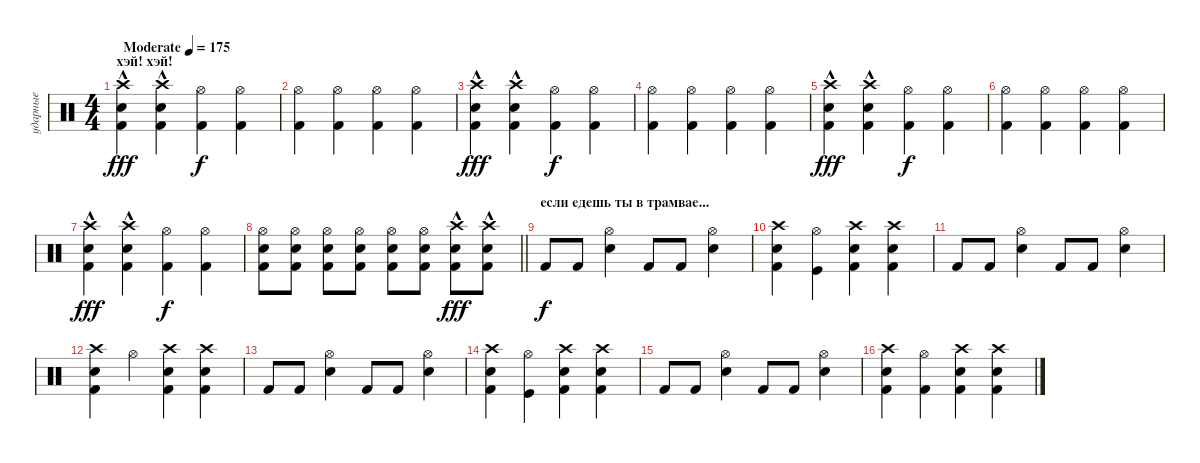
\track ("ударные" "ударные") {instrument percussion}
\staff {score}
\articulation defaults
\ts (4 4)
\section ("" "хэй! хэй!")
\tempo (175 "Moderate")
\clef neutral
\ks c
("Crash high (hit)" "Electric Snare (hit)"{hac} "Kick (hit) 2").4{dy fff} ("Crash high (hit)" "Electric Snare (hit)"{hac} "Kick (hit) 2").4 ("Kick (hit) 2" "Hi-Hat (open)").4{dy f} ("Kick (hit) 2" "Hi-Hat (open)").4 |
("Hi-Hat (open)" "Kick (hit) 2").4 ("Hi-Hat (open)" "Kick (hit) 2").4 ("Hi-Hat (open)" "Kick (hit) 2").4 ("Hi-Hat (open)" "Kick (hit) 2").4 |
("Crash high (hit)"{hac} "Electric Snare (hit)"{hac} "Kick (hit) 2").4{dy fff} ("Crash high (hit)"{hac} "Electric Snare (hit)"{hac} "Kick (hit) 2").4 ("Hi-Hat (open)" "Kick (hit) 2").4{dy f} ("Hi-Hat (open)" "Kick (hit) 2").4 |
("Hi-Hat (open)" "Kick (hit) 2").4 ("Hi-Hat (open)" "Kick (hit) 2").4 ("Hi-Hat (open)" "Kick (hit) 2").4 ("Hi-Hat (open)" "Kick (hit) 2").4 |
("Crash high (hit)"{hac} "Electric Snare (hit)"{hac} "Kick (hit) 2").4{dy fff} ("Crash high (hit)"{hac} "Electric Snare (hit)"{hac} "Kick (hit) 2").4 ("Hi-Hat (open)" "Kick (hit) 2").4{dy f} ("Hi-Hat (open)" "Kick (hit) 2").4 |
("Hi-Hat (open)" "Kick (hit) 2").4 ("Hi-Hat (open)" "Kick (hit) 2").4 ("Hi-Hat (open)" "Kick (hit) 2").4 ("Hi-Hat (open)" "Kick (hit) 2").4 |
("Crash high (hit)"{hac} "Electric Snare (hit)"{hac} "Kick (hit) 2").4{dy fff} ("Crash high (hit)"{hac} "Electric Snare (hit)"{hac} "Kick (hit) 2").4 ("Hi-Hat (open)" "Kick (hit) 2").4{dy f} ("Hi-Hat (open)" "Kick (hit) 2").4 |
\barLineRight lightlight
("Hi-Hat (open)" "Electric Snare (hit)" "Kick (hit) 2").8 ("Hi-Hat (open)" "Electric Snare (hit)" "Kick (hit) 2").8 ("Hi-Hat (open)" "Electric Snare (hit)" "Kick (hit) 2").8 ("Hi-Hat (open)" "Electric Snare (hit)" "Kick (hit) 2").8 ("Hi-Hat (open)" "Electric Snare (hit)" "Kick (hit) 2").8 ("Hi-Hat (open)" "Electric Snare (hit)" "Kick (hit) 2").8 ("Kick (hit) 2"{hac} "Electric Snare (hit)"{hac} "Crash high (hit)").8{dy fff} ("Kick (hit) 2"{hac} "Electric Snare (hit)"{hac} "Crash high (hit)").8 |
\section ("" "если едешь ты в трамвае...")
"Kick (hit) 2".8{dy f} "Kick (hit) 2".8 ("Electric Snare (hit)" "Hi-Hat (open)").4 "Kick (hit) 2".8 "Kick (hit) 2".8 ("Electric Snare (hit)" "Hi-Hat (open)").4 |
("Electric Snare (hit)" "Crash high (hit)" "Kick (hit) 2").4 ("Hi-Hat (open)" "Kick (hit)").4 ("Electric Snare (hit)" "Crash high (hit)" "Kick (hit) 2").4 ("Electric Snare (hit)" "Crash high (hit)" "Kick (hit) 2").4 |
"Kick (hit) 2".8 "Kick (hit) 2".8 ("Electric Snare (hit)" "Hi-Hat (open)").4 "Kick (hit) 2".8 "Kick (hit) 2".8 ("Electric Snare (hit)" "Hi-Hat (open)").4 |
("Electric Snare (hit)" "Crash high (hit)" "Kick (hit) 2").4 "Hi-Hat (open)".4 ("Electric Snare (hit)" "Crash high (hit)" "Kick (hit) 2").4 ("Electric Snare (hit)" "Crash high (hit)" "Kick (hit) 2").4 |
"Kick (hit) 2".8 "Kick (hit) 2".8 ("Electric Snare (hit)" "Hi-Hat (open)").4 "Kick (hit) 2".8 "Kick (hit) 2".8 ("Electric Snare (hit)" "Hi-Hat (open)").4 |
("Electric Snare (hit)" "Crash high (hit)" "Kick (hit) 2").4 ("Hi-Hat (open)" "Kick (hit)").4 ("Electric Snare (hit)" "Crash high (hit)" "Kick (hit) 2").4 ("Electric Snare (hit)" "Crash high (hit)" "Kick (hit) 2").4 |
"Kick (hit) 2".8 "Kick (hit) 2".8 ("Electric Snare (hit)" "Hi-Hat (open)").4 "Kick (hit) 2".8 "Kick (hit) 2".8 ("Electric Snare (hit)" "Hi-Hat (open)").4 |
("Electric Snare (hit)" "Crash high (hit)" "Kick (hit) 2").4 ("Hi-Hat (open)" "Kick (hit) 2").4 ("Electric Snare (hit)" "Crash high (hit)" "Kick (hit) 2").4 ("Electric Snare (hit)" "Crash high (hit)" "Kick (hit) 2").4
